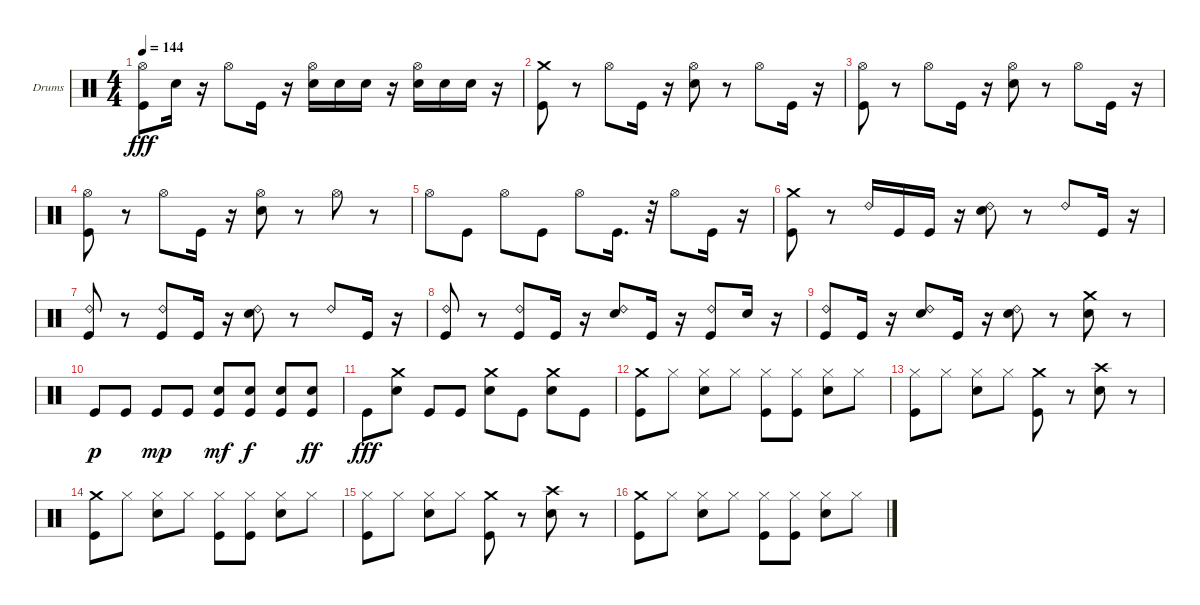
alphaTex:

\bracketExtendMode groupsimilarinstruments
\firstSystemTrackNameOrientation horizontal
\otherSystemsTrackNameOrientation horizontal
\track ("Drumkit" "Drums") {instrument percussion}
\staff {score}
\articulation defaults
\ts (4 4)
\tempo 144
\clef neutral
\ks c
("Hi-Hat (open)" "Kick (hit)").8{dy fff} "Snare (hit) 2".16 r.16 "Hi-Hat (open)".8 "Kick (hit)".16 r.16 ("Hi-Hat (open)" "Snare (hit) 2").16 "Snare (hit) 2".16 "Snare (hit) 2".16 r.16 ("Hi-Hat (open)" "Snare (hit) 2").16 "Snare (hit) 2".16 "Snare (hit) 2".16 r.16 |
("Crash medium (hit)" "Kick (hit)").8 r.8 "Hi-Hat (open)".8 "Kick (hit)".16 r.16 ("Snare (hit) 2" "Hi-Hat (open)").8 r.8 "Hi-Hat (open)".8 "Kick (hit)".16 r.16 |
("Kick (hit)" "Hi-Hat (open)").8 r.8 "Hi-Hat (open)".8 "Kick (hit)".16 r.16 ("Snare (hit) 2" "Hi-Hat (open)").8 r.8 "Hi-Hat (open)".8 "Kick (hit)".16 r.16 |
("Kick (hit)" "Hi-Hat (open)").8 r.8 "Hi-Hat (open)".8 "Kick (hit)".16 r.16 ("Snare (hit) 2" "Hi-Hat (open)").8 r.8 "Hi-Hat (open)".8 r.8 |
"Hi-Hat (open)".8 "Kick (hit)".8 "Hi-Hat (open)".8 "Kick (hit)".8 "Hi-Hat (open)".8 "Kick (hit)".16{d} r.32 "Hi-Hat (open)".8 "Kick (hit)".16 r.16 |
("Kick (hit)" "Crash medium (hit)").8 r.8 "Ride (bell) 2".16 "Kick (hit)".16 "Kick (hit)".16 r.16 ("Snare (hit) 2" "Ride (bell) 2").8 r.8 "Ride (bell) 2".8 "Kick (hit)".16 r.16 |
("Kick (hit)" "Ride (bell) 2").8 r.8 ("Ride (bell) 2" "Kick (hit)").8 "Kick (hit)".16 r.16 ("Snare (hit) 2" "Ride (bell) 2").8 r.8 "Ride (bell) 2".8 "Kick (hit)".16 r.16 |
("Kick (hit)" "Ride (bell) 2").8 r.8 ("Ride (bell) 2" "Kick (hit)").8 "Kick (hit)".16 r.16 ("Snare (hit) 2" "Ride (bell) 2").8 "Kick (hit)".16 r.16 ("Ride (bell) 2" "Kick (hit)").8 "Snare (hit) 2".16 r.16 |
("Ride (bell) 2" "Kick (hit)").8 "Kick (hit)".16 r.16 ("Ride (bell) 2" "Snare (hit) 2").8 "Kick (hit)".16 r.16 ("Ride (bell) 2" "Snare (hit) 2").8 r.8 ("Snare (hit) 2" "Crash medium (hit)").8 r.8 |
"Kick (hit)".8{dy p} "Kick (hit)".8 "Kick (hit)".8{dy mp} "Kick (hit)".8 ("Kick (hit)" "Snare (hit) 2").8{dy mf} ("Kick (hit)" "Snare (hit) 2").8{dy f} ("Kick (hit)" "Snare (hit) 2").8 ("Kick (hit)" "Snare (hit) 2").8{dy ff} |
"Kick (hit)".8{dy fff} ("Snare (hit) 2" "Crash medium (hit)").8 "Kick (hit)".8 "Kick (hit)".8 ("Snare (hit) 2" "Crash medium (hit)").8 "Kick (hit)".8 ("Snare (hit) 2" "Crash medium (hit)").8 "Kick (hit)".8 |
("Crash medium (hit)" "Kick (hit)").8 "Hi-Hat (closed)".8 ("Hi-Hat (closed)" "Snare (hit) 2").8 "Hi-Hat (closed)".8 ("Hi-Hat (closed)" "Kick (hit)").8 ("Hi-Hat (closed)" "Kick (hit)").8 ("Hi-Hat (closed)" "Snare (hit) 2").8 "Hi-Hat (closed)".8 |
("Hi-Hat (closed)" "Kick (hit)").8 "Hi-Hat (closed)".8 ("Hi-Hat (closed)" "Snare (hit) 2").8 "Hi-Hat (closed)".8 ("Crash medium (hit)" "Kick (hit)").8 r.8 ("Snare (hit) 2" "Crash high (hit)").8 r.8 |
("Kick (hit)" "Crash medium (hit)").8 "Hi-Hat (closed)".8 ("Hi-Hat (closed)" "Snare (hit) 2").8 "Hi-Hat (closed)".8 ("Hi-Hat (closed)" "Kick (hit)").8 ("Hi-Hat (closed)" "Kick (hit)").8 ("Hi-Hat (closed)" "Snare (hit) 2").8 "Hi-Hat (closed)".8 |
("Hi-Hat (closed)" "Kick (hit)").8 "Hi-Hat (closed)".8 ("Hi-Hat (closed)" "Snare (hit) 2").8 "Hi-Hat (closed)".8 ("Crash medium (hit)" "Kick (hit)").8 r.8 ("Snare (hit) 2" "Crash high (hit)").8 r.8 |
("Kick (hit)" "Crash medium (hit)").8 "Hi-Hat (closed)".8 ("Hi-Hat (closed)" "Snare (hit) 2").8 "Hi-Hat (closed)".8 ("Hi-Hat (closed)" "Kick (hit)").8 ("Hi-Hat (closed)" "Kick (hit)").8 ("Hi-Hat (closed)" "Snare (hit) 2").8 "Hi-Hat (closed)".8
